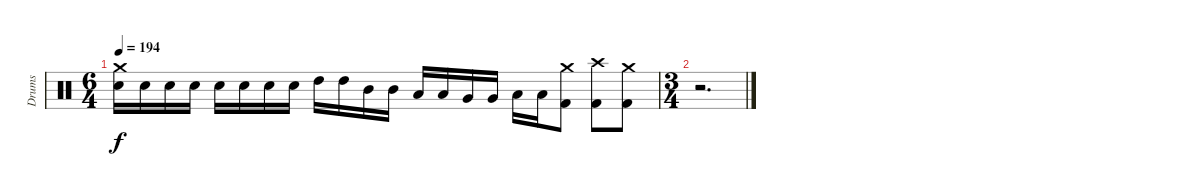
\track ("Drums" "Drums") {instrument percussion}
\staff {score}
\articulation defaults
\ts (6 4)
\tempo 194
\clef neutral
\ks c
("Crash medium (hit)" "Electric Snare (hit)").16{dy f} "Electric Snare (hit)".16 "Electric Snare (hit)".16 "Electric Snare (hit)".16 "Electric Snare (hit)".16 "Electric Snare (hit)".16 "Electric Snare (hit)".16 "Electric Snare (hit)".16 "High Tom (hit)".16 "High Tom (hit)".16 "Mid Tom (hit)".16 "Mid Tom (hit)".16 "Low Tom (hit)".16 "Low Tom (hit)".16 "Very Low Tom (hit)".16 "Very Low Tom (hit)".16 "Low Floor Tom (hit)".16 "Low Floor Tom (hit)".16 ("Crash medium (hit)" "Kick (hit) 2").8 ("Crash high (hit)" "Kick (hit) 2").8 ("Crash medium (hit)" "Kick (hit) 2").8 |
\ts (3 4)
r.2{d}
